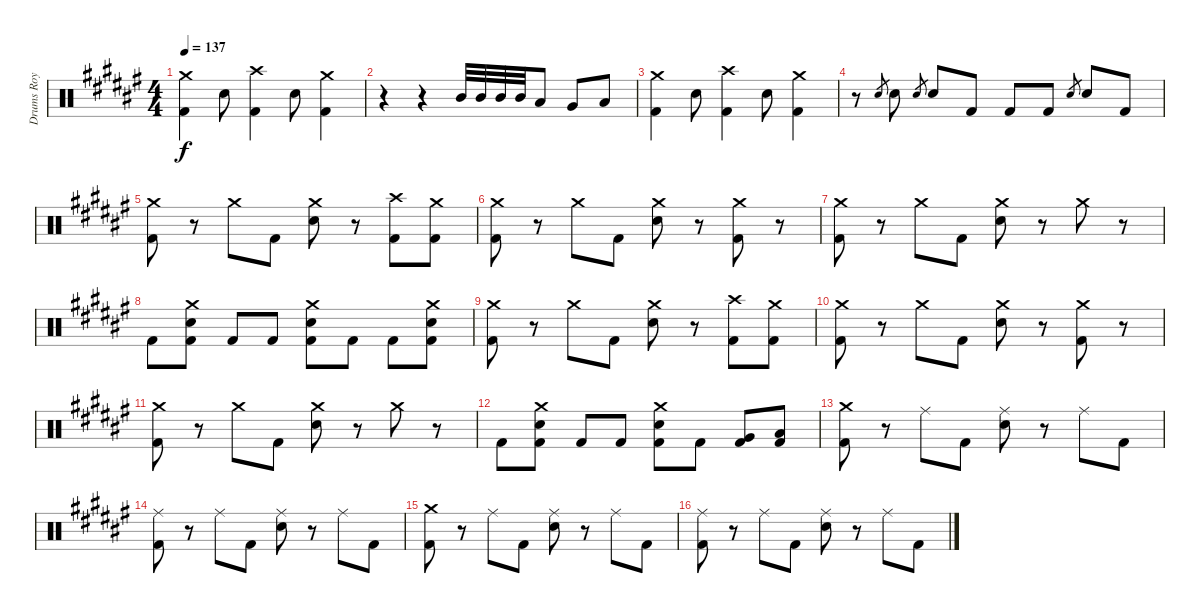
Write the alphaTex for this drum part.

\track ("Drums Roy mayorga" "Drums Roy ") {instrument percussion}
\staff {score}
\articulation defaults
\ts (4 4)
\tempo 137
\clef neutral
\ks d#minor
("Crash medium (hit)" "Kick (hit) 2").4{dy f} "Electric Snare (hit)".8 ("Crash high (hit)" "Kick (hit) 2").4 "Electric Snare (hit)".8 ("Crash medium (hit)" "Kick (hit) 2").4 |
r.4 r.4 "Mid Tom (hit)".32 "Mid Tom (hit)".32 "Mid Tom (hit)".32 "Mid Tom (hit)".32 "Low Tom (hit)".8 "Very Low Tom (hit)".8 "Low Floor Tom (hit)".8 |
("Crash medium (hit)" "Kick (hit) 2").4 "Electric Snare (hit)".8 ("Crash high (hit)" "Kick (hit) 2").4 "Electric Snare (hit)".8 ("Crash medium (hit)" "Kick (hit) 2").4 |
r.8 "Electric Snare (hit)".8{gr} "Electric Snare (hit)".8 "Electric Snare (hit)".8{gr} "Electric Snare (hit)".8 "Kick (hit) 2".8 "Kick (hit) 2".8 "Kick (hit) 2".8 "Electric Snare (hit)".8{gr} "Electric Snare (hit)".8 "Kick (hit) 2".8 |
("Crash medium (hit)" "Kick (hit) 2").8 r.8 "Crash medium (hit)".8 "Kick (hit) 2".8 ("Crash medium (hit)" "Electric Snare (hit)").8 r.8 ("Crash high (hit)" "Kick (hit) 2").8 ("Crash medium (hit)" "Kick (hit) 2").8 |
("Crash medium (hit)" "Kick (hit) 2").8 r.8 "Crash medium (hit)".8 "Kick (hit) 2".8 ("Crash medium (hit)" "Electric Snare (hit)").8 r.8 ("Crash medium (hit)" "Kick (hit) 2").8 r.8 |
("Crash medium (hit)" "Kick (hit) 2").8 r.8 "Crash medium (hit)".8 "Kick (hit) 2".8 ("Crash medium (hit)" "Electric Snare (hit)").8 r.8 "Crash medium (hit)".8 r.8 |
"Kick (hit) 2".8 ("Crash medium (hit)" "Electric Snare (hit)" "Kick (hit) 2").8 "Kick (hit) 2".8 "Kick (hit) 2".8 ("Crash medium (hit)" "Electric Snare (hit)" "Kick (hit) 2").8 "Kick (hit) 2".8 "Kick (hit) 2".8 ("Crash medium (hit)" "Electric Snare (hit)" "Kick (hit) 2").8 |
("Crash medium (hit)" "Kick (hit) 2").8 r.8 "Crash medium (hit)".8 "Kick (hit) 2".8 ("Crash medium (hit)" "Electric Snare (hit)").8 r.8 ("Crash high (hit)" "Kick (hit) 2").8 ("Crash medium (hit)" "Kick (hit) 2").8 |
("Crash medium (hit)" "Kick (hit) 2").8 r.8 "Crash medium (hit)".8 "Kick (hit) 2".8 ("Crash medium (hit)" "Electric Snare (hit)").8 r.8 ("Crash medium (hit)" "Kick (hit) 2").8 r.8 |
("Crash medium (hit)" "Kick (hit) 2").8 r.8 "Crash medium (hit)".8 "Kick (hit) 2".8 ("Crash medium (hit)" "Electric Snare (hit)").8 r.8 "Crash medium (hit)".8 r.8 |
"Kick (hit) 2".8 ("Crash medium (hit)" "Electric Snare (hit)" "Kick (hit) 2").8 "Kick (hit) 2".8 "Kick (hit) 2".8 ("Crash medium (hit)" "Electric Snare (hit)" "Kick (hit) 2").8 "Kick (hit) 2".8 ("Very Low Tom (hit)" "Kick (hit) 2").8 ("Low Tom (hit)" "Kick (hit) 2").8 |
("Crash medium (hit)" "Kick (hit) 2").8 r.8 "Ride (middle)".8 "Kick (hit) 2".8 ("Ride (middle)" "Electric Snare (hit)").8 r.8 "Ride (middle)".8 "Kick (hit) 2".8 |
("Ride (middle)" "Kick (hit) 2").8 r.8 "Ride (middle)".8 "Kick (hit) 2".8 ("Ride (middle)" "Electric Snare (hit)").8 r.8 "Ride (middle)".8 "Kick (hit) 2".8 |
("Crash medium (hit)" "Kick (hit) 2").8 r.8 "Ride (middle)".8 "Kick (hit) 2".8 ("Ride (middle)" "Electric Snare (hit)").8 r.8 "Ride (middle)".8 "Kick (hit) 2".8 |
("Ride (middle)" "Kick (hit) 2").8 r.8 "Ride (middle)".8 "Kick (hit) 2".8 ("Ride (middle)" "Electric Snare (hit)").8 r.8 "Ride (middle)".8 "Kick (hit) 2".8
